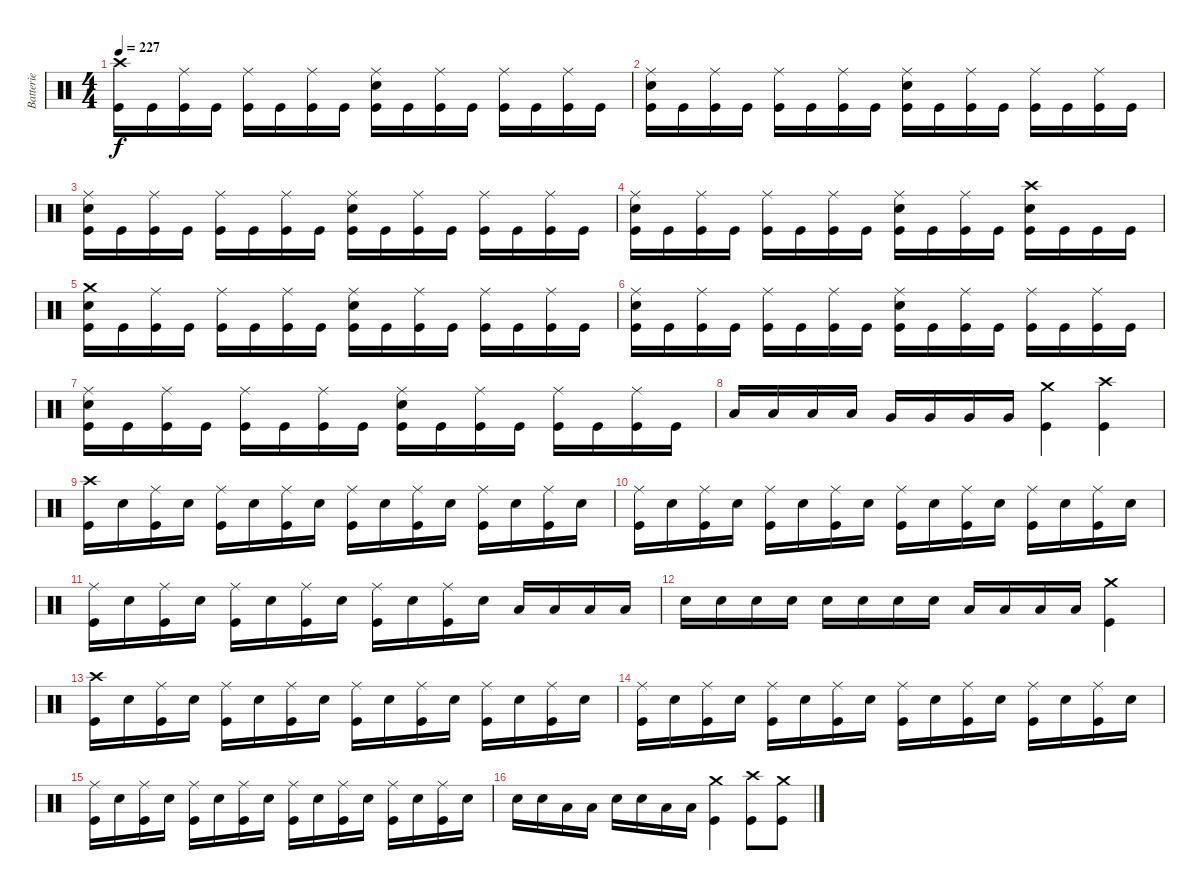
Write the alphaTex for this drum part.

\track ("Batterie" "Batterie") {instrument percussion}
\staff {score}
\articulation defaults
\ts (4 4)
\tempo 227
\clef neutral
\ks c
("Crash high (hit)" "Kick (hit)").16{dy f} "Kick (hit)".16 ("Ride (middle)" "Kick (hit)").16 "Kick (hit)".16 ("Ride (middle)" "Kick (hit)").16 "Kick (hit)".16 ("Ride (middle)" "Kick (hit)").16 "Kick (hit)".16 ("Ride (middle)" "Electric Snare (hit)" "Kick (hit)").16 "Kick (hit)".16 ("Ride (middle)" "Kick (hit)").16 "Kick (hit)".16 ("Ride (middle)" "Kick (hit)").16 "Kick (hit)".16 ("Ride (middle)" "Kick (hit)").16 "Kick (hit)".16 |
("Ride (middle)" "Electric Snare (hit)" "Kick (hit)").16 "Kick (hit)".16 ("Ride (middle)" "Kick (hit)").16 "Kick (hit)".16 ("Ride (middle)" "Kick (hit)").16 "Kick (hit)".16 ("Ride (middle)" "Kick (hit)").16 "Kick (hit)".16 ("Ride (middle)" "Electric Snare (hit)" "Kick (hit)").16 "Kick (hit)".16 ("Ride (middle)" "Kick (hit)").16 "Kick (hit)".16 ("Ride (middle)" "Kick (hit)").16 "Kick (hit)".16 ("Ride (middle)" "Kick (hit)").16 "Kick (hit)".16 |
("Ride (middle)" "Electric Snare (hit)" "Kick (hit)").16 "Kick (hit)".16 ("Ride (middle)" "Kick (hit)").16 "Kick (hit)".16 ("Ride (middle)" "Kick (hit)").16 "Kick (hit)".16 ("Ride (middle)" "Kick (hit)").16 "Kick (hit)".16 ("Ride (middle)" "Electric Snare (hit)" "Kick (hit)").16 "Kick (hit)".16 ("Ride (middle)" "Kick (hit)").16 "Kick (hit)".16 ("Ride (middle)" "Kick (hit)").16 "Kick (hit)".16 ("Ride (middle)" "Kick (hit)").16 "Kick (hit)".16 |
("Ride (middle)" "Electric Snare (hit)" "Kick (hit)").16 "Kick (hit)".16 ("Ride (middle)" "Kick (hit)").16 "Kick (hit)".16 ("Ride (middle)" "Kick (hit)").16 "Kick (hit)".16 ("Ride (middle)" "Kick (hit)").16 "Kick (hit)".16 ("Ride (middle)" "Electric Snare (hit)" "Kick (hit)").16 "Kick (hit)".16 ("Ride (middle)" "Kick (hit)").16 "Kick (hit)".16 ("Crash high (hit)" "Electric Snare (hit)" "Kick (hit)").16 "Kick (hit)".16 "Kick (hit)".16 "Kick (hit)".16 |
("Crash medium (hit)" "Electric Snare (hit)" "Kick (hit)").16 "Kick (hit)".16 ("Ride (middle)" "Kick (hit)").16 "Kick (hit)".16 ("Ride (middle)" "Kick (hit)").16 "Kick (hit)".16 ("Ride (middle)" "Kick (hit)").16 "Kick (hit)".16 ("Ride (middle)" "Electric Snare (hit)" "Kick (hit)").16 "Kick (hit)".16 ("Ride (middle)" "Kick (hit)").16 "Kick (hit)".16 ("Ride (middle)" "Kick (hit)").16 "Kick (hit)".16 ("Ride (middle)" "Kick (hit)").16 "Kick (hit)".16 |
("Ride (middle)" "Electric Snare (hit)" "Kick (hit)").16 "Kick (hit)".16 ("Ride (middle)" "Kick (hit)").16 "Kick (hit)".16 ("Ride (middle)" "Kick (hit)").16 "Kick (hit)".16 ("Ride (middle)" "Kick (hit)").16 "Kick (hit)".16 ("Ride (middle)" "Electric Snare (hit)" "Kick (hit)").16 "Kick (hit)".16 ("Ride (middle)" "Kick (hit)").16 "Kick (hit)".16 ("Ride (middle)" "Kick (hit)").16 "Kick (hit)".16 ("Ride (middle)" "Kick (hit)").16 "Kick (hit)".16 |
("Ride (middle)" "Electric Snare (hit)" "Kick (hit)").16 "Kick (hit)".16 ("Ride (middle)" "Kick (hit)").16 "Kick (hit)".16 ("Ride (middle)" "Kick (hit)").16 "Kick (hit)".16 ("Ride (middle)" "Kick (hit)").16 "Kick (hit)".16 ("Ride (middle)" "Electric Snare (hit)" "Kick (hit)").16 "Kick (hit)".16 ("Ride (middle)" "Kick (hit)").16 "Kick (hit)".16 ("Ride (middle)" "Kick (hit)").16 "Kick (hit)".16 ("Ride (middle)" "Kick (hit)").16 "Kick (hit)".16 |
"Low Tom (hit)".16 "Low Tom (hit)".16 "Low Tom (hit)".16 "Low Tom (hit)".16 "Very Low Tom (hit)".16 "Very Low Tom (hit)".16 "Very Low Tom (hit)".16 "Very Low Tom (hit)".16 ("Crash medium (hit)" "Kick (hit)").4 ("Crash high (hit)" "Kick (hit)").4 |
("Crash high (hit)" "Kick (hit)").16 "Electric Snare (hit)".16 ("Ride (middle)" "Kick (hit)").16 "Electric Snare (hit)".16 ("Ride (middle)" "Kick (hit)").16 "Electric Snare (hit)".16 ("Ride (middle)" "Kick (hit)").16 "Electric Snare (hit)".16 ("Ride (middle)" "Kick (hit)").16 "Electric Snare (hit)".16 ("Ride (middle)" "Kick (hit)").16 "Electric Snare (hit)".16 ("Ride (middle)" "Kick (hit)").16 "Electric Snare (hit)".16 ("Ride (middle)" "Kick (hit)").16 "Electric Snare (hit)".16 |
("Ride (middle)" "Kick (hit)").16 "Electric Snare (hit)".16 ("Ride (middle)" "Kick (hit)").16 "Electric Snare (hit)".16 ("Ride (middle)" "Kick (hit)").16 "Electric Snare (hit)".16 ("Ride (middle)" "Kick (hit)").16 "Electric Snare (hit)".16 ("Ride (middle)" "Kick (hit)").16 "Electric Snare (hit)".16 ("Ride (middle)" "Kick (hit)").16 "Electric Snare (hit)".16 ("Ride (middle)" "Kick (hit)").16 "Electric Snare (hit)".16 ("Ride (middle)" "Kick (hit)").16 "Electric Snare (hit)".16 |
("Ride (middle)" "Kick (hit)").16 "Electric Snare (hit)".16 ("Ride (middle)" "Kick (hit)").16 "Electric Snare (hit)".16 ("Ride (middle)" "Kick (hit)").16 "Electric Snare (hit)".16 ("Ride (middle)" "Kick (hit)").16 "Electric Snare (hit)".16 ("Ride (middle)" "Kick (hit)").16 "Electric Snare (hit)".16 ("Ride (middle)" "Kick (hit)").16 "Electric Snare (hit)".16 "Low Tom (hit)".16 "Low Tom (hit)".16 "Low Tom (hit)".16 "Low Tom (hit)".16 |
"Electric Snare (hit)".16 "Electric Snare (hit)".16 "Electric Snare (hit)".16 "Electric Snare (hit)".16 "Electric Snare (hit)".16 "Electric Snare (hit)".16 "Electric Snare (hit)".16 "Electric Snare (hit)".16 "Low Tom (hit)".16 "Low Tom (hit)".16 "Low Tom (hit)".16 "Low Tom (hit)".16 ("Crash medium (hit)" "Kick (hit)").4 |
("Crash high (hit)" "Kick (hit)").16 "Electric Snare (hit)".16 ("Ride (middle)" "Kick (hit)").16 "Electric Snare (hit)".16 ("Ride (middle)" "Kick (hit)").16 "Electric Snare (hit)".16 ("Ride (middle)" "Kick (hit)").16 "Electric Snare (hit)".16 ("Ride (middle)" "Kick (hit)").16 "Electric Snare (hit)".16 ("Ride (middle)" "Kick (hit)").16 "Electric Snare (hit)".16 ("Ride (middle)" "Kick (hit)").16 "Electric Snare (hit)".16 ("Ride (middle)" "Kick (hit)").16 "Electric Snare (hit)".16 |
("Ride (middle)" "Kick (hit)").16 "Electric Snare (hit)".16 ("Ride (middle)" "Kick (hit)").16 "Electric Snare (hit)".16 ("Ride (middle)" "Kick (hit)").16 "Electric Snare (hit)".16 ("Ride (middle)" "Kick (hit)").16 "Electric Snare (hit)".16 ("Ride (middle)" "Kick (hit)").16 "Electric Snare (hit)".16 ("Ride (middle)" "Kick (hit)").16 "Electric Snare (hit)".16 ("Ride (middle)" "Kick (hit)").16 "Electric Snare (hit)".16 ("Ride (middle)" "Kick (hit)").16 "Electric Snare (hit)".16 |
("Ride (middle)" "Kick (hit)").16 "Electric Snare (hit)".16 ("Ride (middle)" "Kick (hit)").16 "Electric Snare (hit)".16 ("Ride (middle)" "Kick (hit)").16 "Electric Snare (hit)".16 ("Ride (middle)" "Kick (hit)").16 "Electric Snare (hit)".16 ("Ride (middle)" "Kick (hit)").16 "Electric Snare (hit)".16 ("Ride (middle)" "Kick (hit)").16 "Electric Snare (hit)".16 ("Ride (middle)" "Kick (hit)").16 "Electric Snare (hit)".16 ("Ride (middle)" "Kick (hit)").16 "Electric Snare (hit)".16 |
"Electric Snare (hit)".16 "Electric Snare (hit)".16 "Low Tom (hit)".16 "Low Tom (hit)".16 "Electric Snare (hit)".16 "Electric Snare (hit)".16 "Low Tom (hit)".16 "Low Tom (hit)".16 ("Crash medium (hit)" "Kick (hit)").4 ("Crash high (hit)" "Kick (hit)").8 ("Crash medium (hit)" "Kick (hit)").8
